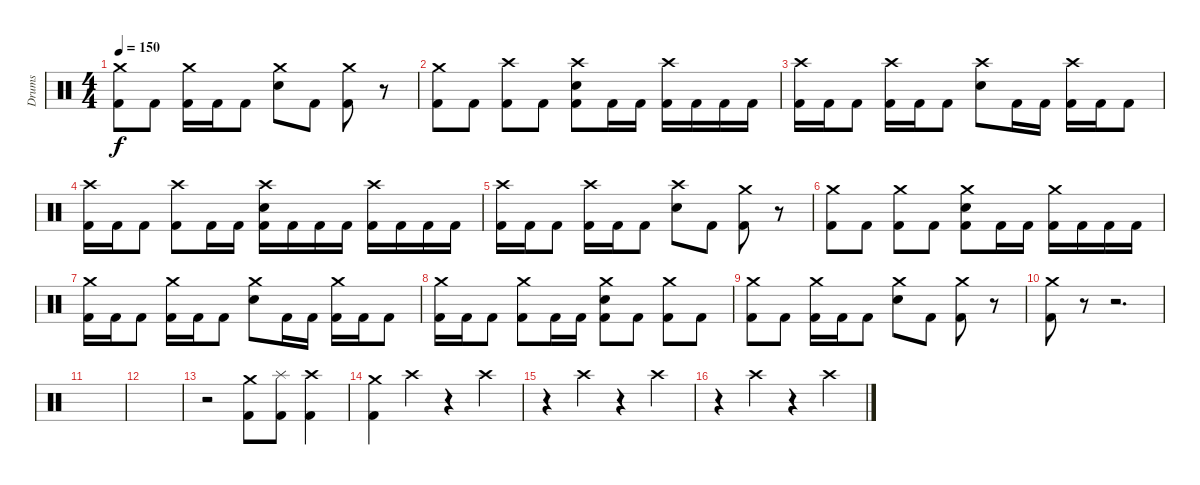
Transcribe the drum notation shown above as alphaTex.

\track ("Drums" "Drums") {instrument percussion}
\staff {score}
\articulation defaults
\ts (4 4)
\tempo 150
\clef neutral
\ks c
("Crash medium (hit)" "Kick (hit) 2").8{dy f} "Kick (hit) 2".8 ("Crash medium (hit)" "Kick (hit) 2").16 "Kick (hit) 2".16 "Kick (hit) 2".8 ("Crash medium (hit)" "Electric Snare (hit)").8 "Kick (hit) 2".8 ("Crash medium (hit)" "Kick (hit) 2").8 r.8 |
("Crash medium (hit)" "Kick (hit) 2").8 "Kick (hit) 2".8 ("Crash high (hit)" "Kick (hit) 2").8 "Kick (hit) 2".8 ("Crash high (hit)" "Electric Snare (hit)" "Kick (hit) 2").8 "Kick (hit) 2".16 "Kick (hit) 2".16 ("Crash high (hit)" "Kick (hit) 2").16 "Kick (hit) 2".16 "Kick (hit) 2".16 "Kick (hit) 2".16 |
("Crash high (hit)" "Kick (hit) 2").16 "Kick (hit) 2".16 "Kick (hit) 2".8 ("Crash high (hit)" "Kick (hit) 2").16 "Kick (hit) 2".16 "Kick (hit) 2".8 ("Crash high (hit)" "Electric Snare (hit)").8 "Kick (hit) 2".16 "Kick (hit) 2".16 ("Crash high (hit)" "Kick (hit) 2").16 "Kick (hit) 2".16 "Kick (hit) 2".8 |
("Crash high (hit)" "Kick (hit) 2").16 "Kick (hit) 2".16 "Kick (hit) 2".8 ("Crash high (hit)" "Kick (hit) 2").8 "Kick (hit) 2".16 "Kick (hit) 2".16 ("Crash high (hit)" "Electric Snare (hit)" "Kick (hit) 2").16 "Kick (hit) 2".16 "Kick (hit) 2".16 "Kick (hit) 2".16 ("Crash high (hit)" "Kick (hit) 2").16 "Kick (hit) 2".16 "Kick (hit) 2".16 "Kick (hit) 2".16 |
("Crash high (hit)" "Kick (hit) 2").16 "Kick (hit) 2".16 "Kick (hit) 2".8 ("Crash high (hit)" "Kick (hit) 2").16 "Kick (hit) 2".16 "Kick (hit) 2".8 ("Crash high (hit)" "Electric Snare (hit)").8 "Kick (hit) 2".8 ("Crash medium (hit)" "Kick (hit) 2").8 r.8 |
("Crash medium (hit)" "Kick (hit) 2").8 "Kick (hit) 2".8 ("Crash medium (hit)" "Kick (hit) 2").8 "Kick (hit) 2".8 ("Crash medium (hit)" "Electric Snare (hit)" "Kick (hit) 2").8 "Kick (hit) 2".16 "Kick (hit) 2".16 ("Crash medium (hit)" "Kick (hit) 2").16 "Kick (hit) 2".16 "Kick (hit) 2".16 "Kick (hit) 2".16 |
("Crash medium (hit)" "Kick (hit) 2").16 "Kick (hit) 2".16 "Kick (hit) 2".8 ("Crash medium (hit)" "Kick (hit) 2").16 "Kick (hit) 2".16 "Kick (hit) 2".8 ("Crash medium (hit)" "Electric Snare (hit)").8 "Kick (hit) 2".16 "Kick (hit) 2".16 ("Crash medium (hit)" "Kick (hit) 2").16 "Kick (hit) 2".16 "Kick (hit) 2".8 |
("Crash medium (hit)" "Kick (hit) 2").16 "Kick (hit) 2".16 "Kick (hit) 2".8 ("Crash medium (hit)" "Kick (hit) 2").8 "Kick (hit) 2".16 "Kick (hit) 2".16 ("Crash medium (hit)" "Electric Snare (hit)" "Kick (hit) 2").8 "Kick (hit) 2".8 ("Crash medium (hit)" "Kick (hit) 2").8 "Kick (hit) 2".8 |
("Crash medium (hit)" "Kick (hit) 2").8 "Kick (hit) 2".8 ("Crash medium (hit)" "Kick (hit) 2").16 "Kick (hit) 2".16 "Kick (hit) 2".8 ("Crash medium (hit)" "Electric Snare (hit)").8 "Kick (hit) 2".8 ("Crash medium (hit)" "Kick (hit) 2").8 r.8 |
("Crash medium (hit)" "Kick (hit) 2").8 r.8 r.2{d} |
|
|
r.2 ("Crash medium (hit)" "Kick (hit) 2").8 ("Splash (hit)" "Kick (hit) 2").8 ("Crash high (hit)" "Kick (hit) 2").4 |
("Crash medium (hit)" "Kick (hit) 2").4 "Crash high (hit)".4 r.4 "Crash high (hit)".4 |
r.4 "Crash high (hit)".4 r.4 "Crash high (hit)".4 |
r.4 "Crash high (hit)".4 r.4 "Crash high (hit)".4
